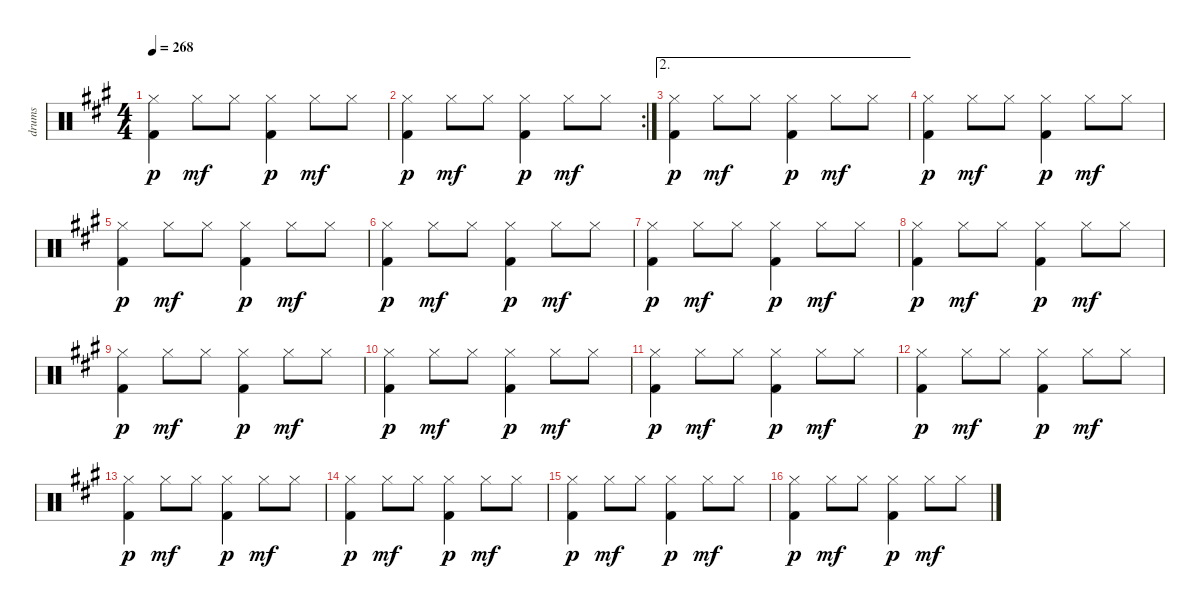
\track ("drums" "drums") {instrument percussion}
\staff {score}
\articulation defaults
\ts (4 4)
\tempo 268
\clef neutral
\ks a
("Hi-Hat (closed)" "Kick (hit) 2").4{dy p} "Hi-Hat (closed)".8{dy mf} "Hi-Hat (closed)".8 ("Hi-Hat (closed)" "Kick (hit) 2").4{dy p} "Hi-Hat (closed)".8{dy mf} "Hi-Hat (closed)".8 |
\rc 2
("Hi-Hat (closed)" "Kick (hit) 2").4{dy p} "Hi-Hat (closed)".8{dy mf} "Hi-Hat (closed)".8 ("Hi-Hat (closed)" "Kick (hit) 2").4{dy p} "Hi-Hat (closed)".8{dy mf} "Hi-Hat (closed)".8 |
\ae 2
("Hi-Hat (closed)" "Kick (hit) 2").4{dy p} "Hi-Hat (closed)".8{dy mf} "Hi-Hat (closed)".8 ("Hi-Hat (closed)" "Kick (hit) 2").4{dy p} "Hi-Hat (closed)".8{dy mf} "Hi-Hat (closed)".8 |
("Hi-Hat (closed)" "Kick (hit) 2").4{dy p} "Hi-Hat (closed)".8{dy mf} "Hi-Hat (closed)".8 ("Hi-Hat (closed)" "Kick (hit) 2").4{dy p} "Hi-Hat (closed)".8{dy mf} "Hi-Hat (closed)".8 |
("Hi-Hat (closed)" "Kick (hit) 2").4{dy p} "Hi-Hat (closed)".8{dy mf} "Hi-Hat (closed)".8 ("Hi-Hat (closed)" "Kick (hit) 2").4{dy p} "Hi-Hat (closed)".8{dy mf} "Hi-Hat (closed)".8 |
("Hi-Hat (closed)" "Kick (hit) 2").4{dy p} "Hi-Hat (closed)".8{dy mf} "Hi-Hat (closed)".8 ("Hi-Hat (closed)" "Kick (hit) 2").4{dy p} "Hi-Hat (closed)".8{dy mf} "Hi-Hat (closed)".8 |
("Hi-Hat (closed)" "Kick (hit) 2").4{dy p} "Hi-Hat (closed)".8{dy mf} "Hi-Hat (closed)".8 ("Hi-Hat (closed)" "Kick (hit) 2").4{dy p} "Hi-Hat (closed)".8{dy mf} "Hi-Hat (closed)".8 |
("Hi-Hat (closed)" "Kick (hit) 2").4{dy p} "Hi-Hat (closed)".8{dy mf} "Hi-Hat (closed)".8 ("Hi-Hat (closed)" "Kick (hit) 2").4{dy p} "Hi-Hat (closed)".8{dy mf} "Hi-Hat (closed)".8 |
("Hi-Hat (closed)" "Kick (hit) 2").4{dy p} "Hi-Hat (closed)".8{dy mf} "Hi-Hat (closed)".8 ("Hi-Hat (closed)" "Kick (hit) 2").4{dy p} "Hi-Hat (closed)".8{dy mf} "Hi-Hat (closed)".8 |
("Hi-Hat (closed)" "Kick (hit) 2").4{dy p} "Hi-Hat (closed)".8{dy mf} "Hi-Hat (closed)".8 ("Hi-Hat (closed)" "Kick (hit) 2").4{dy p} "Hi-Hat (closed)".8{dy mf} "Hi-Hat (closed)".8 |
("Hi-Hat (closed)" "Kick (hit) 2").4{dy p} "Hi-Hat (closed)".8{dy mf} "Hi-Hat (closed)".8 ("Hi-Hat (closed)" "Kick (hit) 2").4{dy p} "Hi-Hat (closed)".8{dy mf} "Hi-Hat (closed)".8 |
("Hi-Hat (closed)" "Kick (hit) 2").4{dy p} "Hi-Hat (closed)".8{dy mf} "Hi-Hat (closed)".8 ("Hi-Hat (closed)" "Kick (hit) 2").4{dy p} "Hi-Hat (closed)".8{dy mf} "Hi-Hat (closed)".8 |
("Hi-Hat (closed)" "Kick (hit) 2").4{dy p} "Hi-Hat (closed)".8{dy mf} "Hi-Hat (closed)".8 ("Hi-Hat (closed)" "Kick (hit) 2").4{dy p} "Hi-Hat (closed)".8{dy mf} "Hi-Hat (closed)".8 |
("Hi-Hat (closed)" "Kick (hit) 2").4{dy p} "Hi-Hat (closed)".8{dy mf} "Hi-Hat (closed)".8 ("Hi-Hat (closed)" "Kick (hit) 2").4{dy p} "Hi-Hat (closed)".8{dy mf} "Hi-Hat (closed)".8 |
("Hi-Hat (closed)" "Kick (hit) 2").4{dy p} "Hi-Hat (closed)".8{dy mf} "Hi-Hat (closed)".8 ("Hi-Hat (closed)" "Kick (hit) 2").4{dy p} "Hi-Hat (closed)".8{dy mf} "Hi-Hat (closed)".8 |
("Hi-Hat (closed)" "Kick (hit) 2").4{dy p} "Hi-Hat (closed)".8{dy mf} "Hi-Hat (closed)".8 ("Hi-Hat (closed)" "Kick (hit) 2").4{dy p} "Hi-Hat (closed)".8{dy mf} "Hi-Hat (closed)".8
